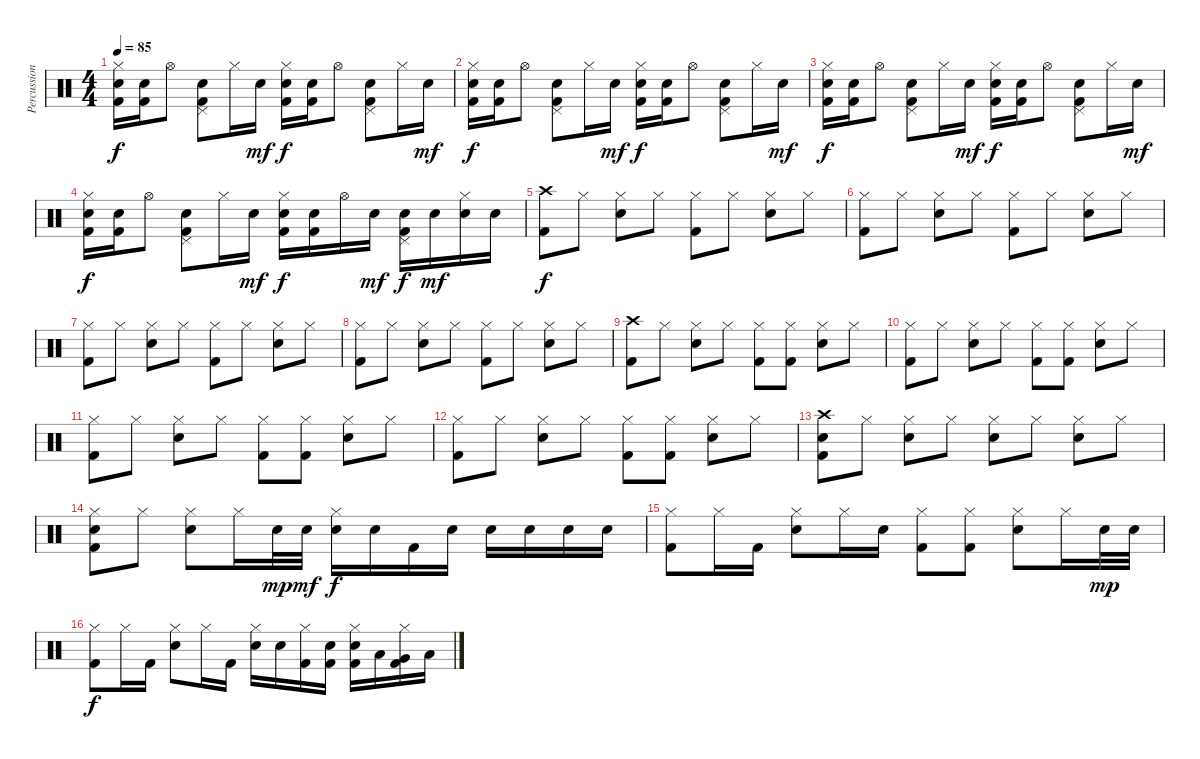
\track ("Percussion" "Percussion") {instrument percussion}
\staff {score}
\articulation defaults
\ts (4 4)
\tempo 85
\clef neutral
\ks c
("Hi-Hat (closed)" "Electric Snare (hit)" "Kick (hit) 2").16{dy f} ("Electric Snare (hit)" "Kick (hit) 2").16 "Hi-Hat (open)".8 ("Pedal Hi-Hat (hit)" "Electric Snare (hit)" "Kick (hit) 2").8 "Hi-Hat (closed)".16 "Electric Snare (hit)".16{dy mf} ("Hi-Hat (closed)" "Electric Snare (hit)" "Kick (hit) 2").16{dy f} ("Electric Snare (hit)" "Kick (hit) 2").16 "Hi-Hat (open)".8 ("Pedal Hi-Hat (hit)" "Electric Snare (hit)" "Kick (hit) 2").8 "Hi-Hat (closed)".16 "Electric Snare (hit)".16{dy mf} |
("Hi-Hat (closed)" "Electric Snare (hit)" "Kick (hit) 2").16{dy f} ("Electric Snare (hit)" "Kick (hit) 2").16 "Hi-Hat (open)".8 ("Pedal Hi-Hat (hit)" "Electric Snare (hit)" "Kick (hit) 2").8 "Hi-Hat (closed)".16 "Electric Snare (hit)".16{dy mf} ("Hi-Hat (closed)" "Electric Snare (hit)" "Kick (hit) 2").16{dy f} ("Electric Snare (hit)" "Kick (hit) 2").16 "Hi-Hat (open)".8 ("Pedal Hi-Hat (hit)" "Electric Snare (hit)" "Kick (hit) 2").8 "Hi-Hat (closed)".16 "Electric Snare (hit)".16{dy mf} |
("Hi-Hat (closed)" "Electric Snare (hit)" "Kick (hit) 2").16{dy f} ("Electric Snare (hit)" "Kick (hit) 2").16 "Hi-Hat (open)".8 ("Pedal Hi-Hat (hit)" "Electric Snare (hit)" "Kick (hit) 2").8 "Hi-Hat (closed)".16 "Electric Snare (hit)".16{dy mf} ("Hi-Hat (closed)" "Electric Snare (hit)" "Kick (hit) 2").16{dy f} ("Electric Snare (hit)" "Kick (hit) 2").16 "Hi-Hat (open)".8 ("Pedal Hi-Hat (hit)" "Electric Snare (hit)" "Kick (hit) 2").8 "Hi-Hat (closed)".16 "Electric Snare (hit)".16{dy mf} |
("Hi-Hat (closed)" "Electric Snare (hit)" "Kick (hit) 2").16{dy f} ("Electric Snare (hit)" "Kick (hit) 2").16 "Hi-Hat (open)".8 ("Pedal Hi-Hat (hit)" "Electric Snare (hit)" "Kick (hit) 2").8 "Hi-Hat (closed)".16 "Electric Snare (hit)".16{dy mf} ("Hi-Hat (closed)" "Electric Snare (hit)" "Kick (hit) 2").16{dy f} ("Electric Snare (hit)" "Kick (hit) 2").16 "Hi-Hat (open)".16 "Electric Snare (hit)".16{dy mf} ("Pedal Hi-Hat (hit)" "Electric Snare (hit)" "Kick (hit) 2").16{dy f} "Electric Snare (hit)".16{dy mf} ("Hi-Hat (closed)" "Electric Snare (hit)").16 "Electric Snare (hit)".16 |
("Crash high (hit)" "Kick (hit) 2").8{dy f} "Hi-Hat (closed)".8 ("Hi-Hat (closed)" "Electric Snare (hit)").8 "Hi-Hat (closed)".8 ("Hi-Hat (closed)" "Kick (hit) 2").8 "Hi-Hat (closed)".8 ("Hi-Hat (closed)" "Electric Snare (hit)").8 "Hi-Hat (closed)".8 |
("Hi-Hat (closed)" "Kick (hit) 2").8 "Hi-Hat (closed)".8 ("Hi-Hat (closed)" "Electric Snare (hit)").8 "Hi-Hat (closed)".8 ("Hi-Hat (closed)" "Kick (hit) 2").8 "Hi-Hat (closed)".8 ("Hi-Hat (closed)" "Electric Snare (hit)").8 "Hi-Hat (closed)".8 |
("Hi-Hat (closed)" "Kick (hit) 2").8 "Hi-Hat (closed)".8 ("Hi-Hat (closed)" "Electric Snare (hit)").8 "Hi-Hat (closed)".8 ("Hi-Hat (closed)" "Kick (hit) 2").8 "Hi-Hat (closed)".8 ("Hi-Hat (closed)" "Electric Snare (hit)").8 "Hi-Hat (closed)".8 |
("Hi-Hat (closed)" "Kick (hit) 2").8 "Hi-Hat (closed)".8 ("Hi-Hat (closed)" "Electric Snare (hit)").8 "Hi-Hat (closed)".8 ("Hi-Hat (closed)" "Kick (hit) 2").8 "Hi-Hat (closed)".8 ("Hi-Hat (closed)" "Electric Snare (hit)").8 "Hi-Hat (closed)".8 |
("Crash high (hit)" "Kick (hit) 2").8 "Hi-Hat (closed)".8 ("Hi-Hat (closed)" "Electric Snare (hit)").8 "Hi-Hat (closed)".8 ("Hi-Hat (closed)" "Kick (hit) 2").8 ("Hi-Hat (closed)" "Kick (hit) 2").8 ("Hi-Hat (closed)" "Electric Snare (hit)").8 "Hi-Hat (closed)".8 |
("Hi-Hat (closed)" "Kick (hit) 2").8 "Hi-Hat (closed)".8 ("Hi-Hat (closed)" "Electric Snare (hit)").8 "Hi-Hat (closed)".8 ("Hi-Hat (closed)" "Kick (hit) 2").8 ("Hi-Hat (closed)" "Kick (hit) 2").8 ("Hi-Hat (closed)" "Electric Snare (hit)").8 "Hi-Hat (closed)".8 |
("Hi-Hat (closed)" "Kick (hit) 2").8 "Hi-Hat (closed)".8 ("Hi-Hat (closed)" "Electric Snare (hit)").8 "Hi-Hat (closed)".8 ("Hi-Hat (closed)" "Kick (hit) 2").8 ("Hi-Hat (closed)" "Kick (hit) 2").8 ("Hi-Hat (closed)" "Electric Snare (hit)").8 "Hi-Hat (closed)".8 |
("Hi-Hat (closed)" "Kick (hit) 2").8 "Hi-Hat (closed)".8 ("Hi-Hat (closed)" "Electric Snare (hit)").8 "Hi-Hat (closed)".8 ("Hi-Hat (closed)" "Kick (hit) 2").8 ("Hi-Hat (closed)" "Kick (hit) 2").8 ("Hi-Hat (closed)" "Electric Snare (hit)").8 "Hi-Hat (closed)".8 |
("Crash high (hit)" "Electric Snare (hit)" "Kick (hit) 2").8 "Hi-Hat (closed)".8 ("Hi-Hat (closed)" "Electric Snare (hit)").8 "Hi-Hat (closed)".8 ("Hi-Hat (closed)" "Electric Snare (hit)").8 "Hi-Hat (closed)".8 ("Hi-Hat (closed)" "Electric Snare (hit)").8 "Hi-Hat (closed)".8 |
("Hi-Hat (closed)" "Electric Snare (hit)" "Kick (hit) 2").8 "Hi-Hat (closed)".8 ("Hi-Hat (closed)" "Electric Snare (hit)").8 "Hi-Hat (closed)".16 "Electric Snare (hit)".32{dy mp} "Electric Snare (hit)".32{dy mf} ("Hi-Hat (closed)" "Electric Snare (hit)").16{dy f} "Electric Snare (hit)".16 "Kick (hit) 2".16 "Electric Snare (hit)".16 "Electric Snare (hit)".16 "Electric Snare (hit)".16 "Electric Snare (hit)".16 "Electric Snare (hit)".16 |
("Hi-Hat (closed)" "Kick (hit) 2").8 "Hi-Hat (closed)".16 "Kick (hit) 2".16 ("Hi-Hat (closed)" "Electric Snare (hit)").8 "Hi-Hat (closed)".16 "Electric Snare (hit)".16 ("Hi-Hat (closed)" "Kick (hit) 2").8 ("Hi-Hat (closed)" "Kick (hit) 2").8 ("Hi-Hat (closed)" "Electric Snare (hit)").8 "Hi-Hat (closed)".16 "Electric Snare (hit)".32{dy mp} "Electric Snare (hit)".32 |
("Hi-Hat (closed)" "Kick (hit) 2").8{dy f} "Hi-Hat (closed)".16 "Kick (hit) 2".16 ("Hi-Hat (closed)" "Electric Snare (hit)").8 "Hi-Hat (closed)".16 "Kick (hit) 2".16 ("Hi-Hat (closed)" "Electric Snare (hit)").16 "Electric Snare (hit)".16 ("Hi-Hat (closed)" "Kick (hit) 2").16 ("Electric Snare (hit)" "Kick (hit) 2").16 ("Hi-Hat (closed)" "Electric Snare (hit)" "Kick (hit) 2").16 "Low Tom (hit)".16 ("Hi-Hat (closed)" "Very Low Tom (hit)" "Kick (hit) 2").16 "Low Floor Tom (hit)".16
